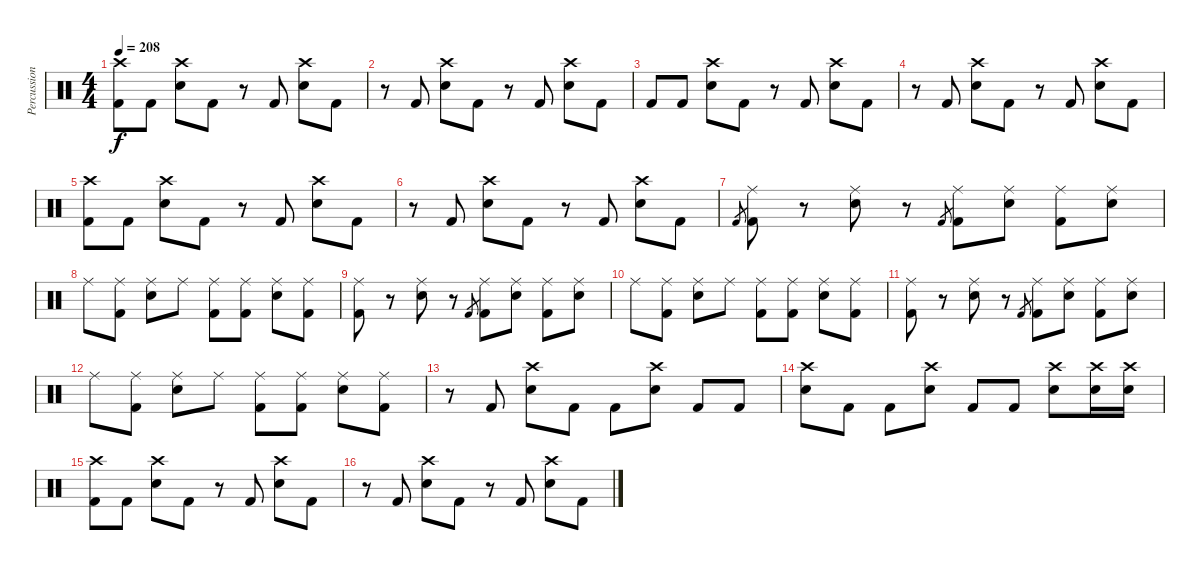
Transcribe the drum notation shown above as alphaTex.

\track ("Percussion" "Percussion") {instrument percussion}
\staff {score}
\articulation defaults
\ts (4 4)
\tempo 208
\clef neutral
\ks c
("Crash high (hit)" "Kick (hit) 2").8{dy f} "Kick (hit) 2".8 ("Crash high (hit)" "Electric Snare (hit)").8 "Kick (hit) 2".8 r.8 "Kick (hit) 2".8 ("Crash high (hit)" "Electric Snare (hit)").8 "Kick (hit) 2".8 |
r.8 "Kick (hit) 2".8 ("Crash high (hit)" "Electric Snare (hit)").8 "Kick (hit) 2".8 r.8 "Kick (hit) 2".8 ("Crash high (hit)" "Electric Snare (hit)").8 "Kick (hit) 2".8 |
"Kick (hit) 2".8 "Kick (hit) 2".8 ("Crash high (hit)" "Electric Snare (hit)").8 "Kick (hit) 2".8 r.8 "Kick (hit) 2".8 ("Crash high (hit)" "Electric Snare (hit)").8 "Kick (hit) 2".8 |
r.8 "Kick (hit) 2".8 ("Crash high (hit)" "Electric Snare (hit)").8 "Kick (hit) 2".8 r.8 "Kick (hit) 2".8 ("Crash high (hit)" "Electric Snare (hit)").8 "Kick (hit) 2".8 |
("Crash high (hit)" "Kick (hit) 2").8 "Kick (hit) 2".8 ("Crash high (hit)" "Electric Snare (hit)").8 "Kick (hit) 2".8 r.8 "Kick (hit) 2".8 ("Crash high (hit)" "Electric Snare (hit)").8 "Kick (hit) 2".8 |
r.8 "Kick (hit) 2".8 ("Crash high (hit)" "Electric Snare (hit)").8 "Kick (hit) 2".8 r.8 "Kick (hit) 2".8 ("Crash high (hit)" "Electric Snare (hit)").8 "Kick (hit) 2".8 |
"Kick (hit) 2".8{gr} ("Ride (middle)" "Kick (hit) 2").8 r.8 ("Ride (middle)" "Electric Snare (hit)").8 r.8 "Kick (hit) 2".8{gr} ("Ride (middle)" "Kick (hit) 2").8 ("Ride (middle)" "Electric Snare (hit)").8 ("Ride (middle)" "Kick (hit) 2").8 ("Ride (middle)" "Electric Snare (hit)").8 |
"Ride (middle)".8 ("Ride (middle)" "Kick (hit) 2").8 ("Ride (middle)" "Electric Snare (hit)").8 "Ride (middle)".8 ("Ride (middle)" "Kick (hit) 2").8 ("Ride (middle)" "Kick (hit) 2").8 ("Ride (middle)" "Electric Snare (hit)").8 ("Ride (middle)" "Kick (hit) 2").8 |
("Ride (middle)" "Kick (hit) 2").8 r.8 ("Ride (middle)" "Electric Snare (hit)").8 r.8 "Kick (hit) 2".8{gr} ("Ride (middle)" "Kick (hit) 2").8 ("Ride (middle)" "Electric Snare (hit)").8 ("Ride (middle)" "Kick (hit) 2").8 ("Ride (middle)" "Electric Snare (hit)").8 |
"Ride (middle)".8 ("Ride (middle)" "Kick (hit) 2").8 ("Ride (middle)" "Electric Snare (hit)").8 "Ride (middle)".8 ("Ride (middle)" "Kick (hit) 2").8 ("Ride (middle)" "Kick (hit) 2").8 ("Ride (middle)" "Electric Snare (hit)").8 ("Ride (middle)" "Kick (hit) 2").8 |
("Ride (middle)" "Kick (hit) 2").8 r.8 ("Ride (middle)" "Electric Snare (hit)").8 r.8 "Kick (hit) 2".8{gr} ("Ride (middle)" "Kick (hit) 2").8 ("Ride (middle)" "Electric Snare (hit)").8 ("Ride (middle)" "Kick (hit) 2").8 ("Ride (middle)" "Electric Snare (hit)").8 |
"Ride (middle)".8 ("Ride (middle)" "Kick (hit) 2").8 ("Ride (middle)" "Electric Snare (hit)").8 "Ride (middle)".8 ("Ride (middle)" "Kick (hit) 2").8 ("Ride (middle)" "Kick (hit) 2").8 ("Ride (middle)" "Electric Snare (hit)").8 ("Ride (middle)" "Kick (hit) 2").8 |
r.8 "Kick (hit) 2".8 ("Crash high (hit)" "Electric Snare (hit)").8 "Kick (hit) 2".8 "Kick (hit) 2".8 ("Crash high (hit)" "Electric Snare (hit)").8 "Kick (hit) 2".8 "Kick (hit) 2".8 |
("Crash high (hit)" "Electric Snare (hit)").8 "Kick (hit) 2".8 "Kick (hit) 2".8 ("Crash high (hit)" "Electric Snare (hit)").8 "Kick (hit) 2".8 "Kick (hit) 2".8 ("Crash high (hit)" "Electric Snare (hit)").8 ("Crash high (hit)" "Electric Snare (hit)").16 ("Crash high (hit)" "Electric Snare (hit)").16 |
("Crash high (hit)" "Kick (hit) 2").8 "Kick (hit) 2".8 ("Crash high (hit)" "Electric Snare (hit)").8 "Kick (hit) 2".8 r.8 "Kick (hit) 2".8 ("Crash high (hit)" "Electric Snare (hit)").8 "Kick (hit) 2".8 |
r.8 "Kick (hit) 2".8 ("Crash high (hit)" "Electric Snare (hit)").8 "Kick (hit) 2".8 r.8 "Kick (hit) 2".8 ("Crash high (hit)" "Electric Snare (hit)").8 "Kick (hit) 2".8
